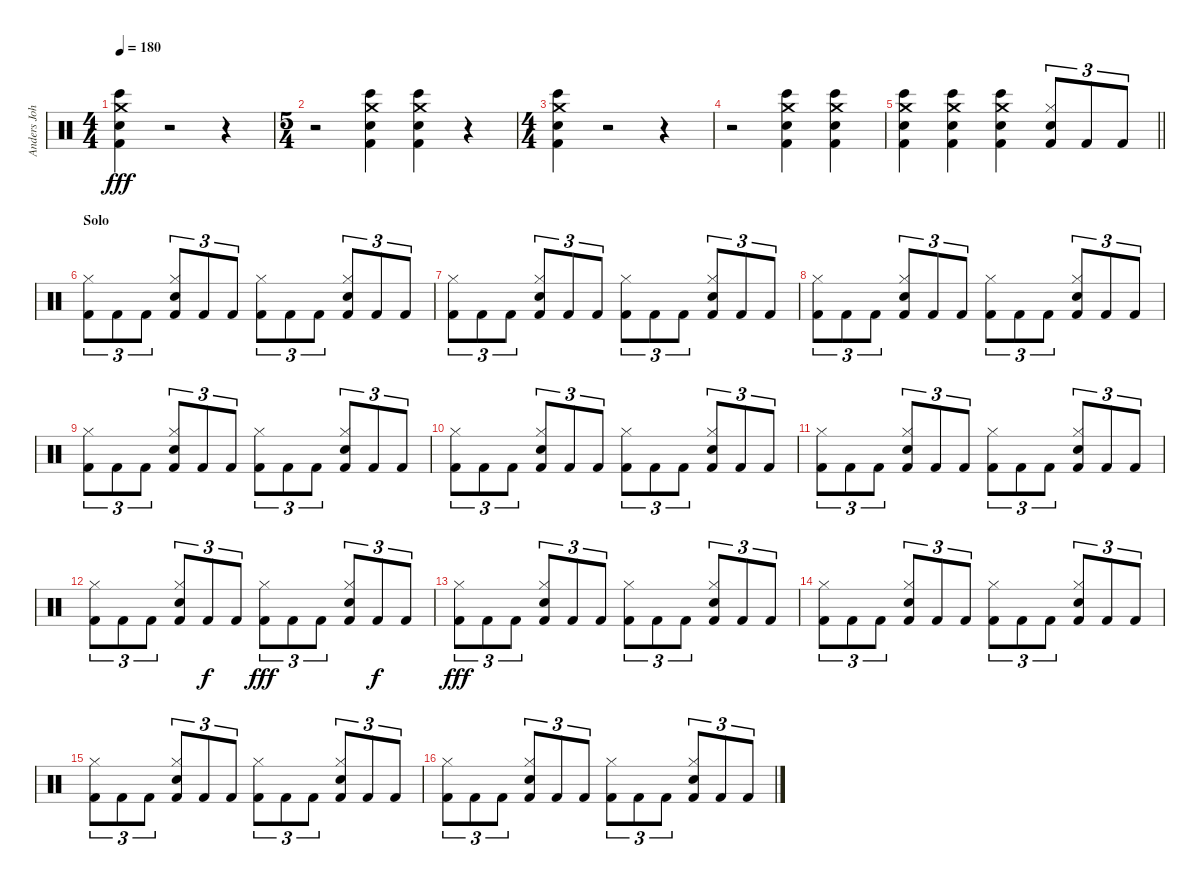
\track ("Anders Johansson" "Anders Joh") {instrument percussion}
\staff {score}
\articulation defaults
\ts (4 4)
\tempo 180
\clef neutral
\ks c
("Bongo High (hit)" "Crash medium (hit)" "Snare (hit) 2" "Kick (hit) 2").4{dy fff} r.2 r.4 |
\ts (5 4)
r.2 ("Bongo High (hit)" "Crash medium (hit)" "Snare (hit) 2" "Kick (hit) 2").4 ("Bongo High (hit)" "Crash medium (hit)" "Snare (hit) 2" "Kick (hit) 2").4 r.4 |
\ts (4 4)
("Bongo High (hit)" "Crash medium (hit)" "Snare (hit) 2" "Kick (hit) 2").4 r.2 r.4 |
r.2 ("Bongo High (hit)" "Crash medium (hit)" "Snare (hit) 2" "Kick (hit) 2").4 ("Bongo High (hit)" "Crash medium (hit)" "Snare (hit) 2" "Kick (hit) 2").4 |
\barLineRight lightlight
("Bongo High (hit)" "Crash medium (hit)" "Snare (hit) 2" "Kick (hit) 2").4 ("Bongo High (hit)" "Crash medium (hit)" "Snare (hit) 2" "Kick (hit) 2").4 ("Bongo High (hit)" "Crash medium (hit)" "Snare (hit) 2" "Kick (hit) 2").4 ("Hi-Hat (closed)" "Electric Snare (hit)" "Kick (hit) 2").8{tu (3 2)} "Kick (hit) 2".8{tu (3 2)} "Kick (hit) 2".8{tu (3 2)} |
\section ("" "Solo")
("Hi-Hat (closed)" "Kick (hit) 2").8{tu (3 2)} "Kick (hit) 2".8{tu (3 2)} "Kick (hit) 2".8{tu (3 2)} ("Hi-Hat (closed)" "Electric Snare (hit)" "Kick (hit) 2").8{tu (3 2)} "Kick (hit) 2".8{tu (3 2)} "Kick (hit) 2".8{tu (3 2)} ("Hi-Hat (closed)" "Kick (hit) 2").8{tu (3 2)} "Kick (hit) 2".8{tu (3 2)} "Kick (hit) 2".8{tu (3 2)} ("Hi-Hat (closed)" "Electric Snare (hit)" "Kick (hit) 2").8{tu (3 2)} "Kick (hit) 2".8{tu (3 2)} "Kick (hit) 2".8{tu (3 2)} |
("Hi-Hat (closed)" "Kick (hit) 2").8{tu (3 2)} "Kick (hit) 2".8{tu (3 2)} "Kick (hit) 2".8{tu (3 2)} ("Hi-Hat (closed)" "Electric Snare (hit)" "Kick (hit) 2").8{tu (3 2)} "Kick (hit) 2".8{tu (3 2)} "Kick (hit) 2".8{tu (3 2)} ("Hi-Hat (closed)" "Kick (hit) 2").8{tu (3 2)} "Kick (hit) 2".8{tu (3 2)} "Kick (hit) 2".8{tu (3 2)} ("Hi-Hat (closed)" "Electric Snare (hit)" "Kick (hit) 2").8{tu (3 2)} "Kick (hit) 2".8{tu (3 2)} "Kick (hit) 2".8{tu (3 2)} |
("Hi-Hat (closed)" "Kick (hit) 2").8{tu (3 2)} "Kick (hit) 2".8{tu (3 2)} "Kick (hit) 2".8{tu (3 2)} ("Hi-Hat (closed)" "Electric Snare (hit)" "Kick (hit) 2").8{tu (3 2)} "Kick (hit) 2".8{tu (3 2)} "Kick (hit) 2".8{tu (3 2)} ("Hi-Hat (closed)" "Kick (hit) 2").8{tu (3 2)} "Kick (hit) 2".8{tu (3 2)} "Kick (hit) 2".8{tu (3 2)} ("Hi-Hat (closed)" "Electric Snare (hit)" "Kick (hit) 2").8{tu (3 2)} "Kick (hit) 2".8{tu (3 2)} "Kick (hit) 2".8{tu (3 2)} |
("Hi-Hat (closed)" "Kick (hit) 2").8{tu (3 2)} "Kick (hit) 2".8{tu (3 2)} "Kick (hit) 2".8{tu (3 2)} ("Hi-Hat (closed)" "Electric Snare (hit)" "Kick (hit) 2").8{tu (3 2)} "Kick (hit) 2".8{tu (3 2)} "Kick (hit) 2".8{tu (3 2)} ("Hi-Hat (closed)" "Kick (hit) 2").8{tu (3 2)} "Kick (hit) 2".8{tu (3 2)} "Kick (hit) 2".8{tu (3 2)} ("Hi-Hat (closed)" "Electric Snare (hit)" "Kick (hit) 2").8{tu (3 2)} "Kick (hit) 2".8{tu (3 2)} "Kick (hit) 2".8{tu (3 2)} |
("Hi-Hat (closed)" "Kick (hit) 2").8{tu (3 2)} "Kick (hit) 2".8{tu (3 2)} "Kick (hit) 2".8{tu (3 2)} ("Hi-Hat (closed)" "Electric Snare (hit)" "Kick (hit) 2").8{tu (3 2)} "Kick (hit) 2".8{tu (3 2)} "Kick (hit) 2".8{tu (3 2)} ("Hi-Hat (closed)" "Kick (hit) 2").8{tu (3 2)} "Kick (hit) 2".8{tu (3 2)} "Kick (hit) 2".8{tu (3 2)} ("Hi-Hat (closed)" "Electric Snare (hit)" "Kick (hit) 2").8{tu (3 2)} "Kick (hit) 2".8{tu (3 2)} "Kick (hit) 2".8{tu (3 2)} |
("Hi-Hat (closed)" "Kick (hit) 2").8{tu (3 2)} "Kick (hit) 2".8{tu (3 2)} "Kick (hit) 2".8{tu (3 2)} ("Hi-Hat (closed)" "Electric Snare (hit)" "Kick (hit) 2").8{tu (3 2)} "Kick (hit) 2".8{tu (3 2)} "Kick (hit) 2".8{tu (3 2)} ("Hi-Hat (closed)" "Kick (hit) 2").8{tu (3 2)} "Kick (hit) 2".8{tu (3 2)} "Kick (hit) 2".8{tu (3 2)} ("Hi-Hat (closed)" "Electric Snare (hit)" "Kick (hit) 2").8{tu (3 2)} "Kick (hit) 2".8{tu (3 2)} "Kick (hit) 2".8{tu (3 2)} |
("Hi-Hat (closed)" "Kick (hit) 2").8{tu (3 2)} "Kick (hit) 2".8{tu (3 2)} "Kick (hit) 2".8{tu (3 2)} ("Hi-Hat (closed)" "Electric Snare (hit)" "Kick (hit) 2").8{tu (3 2)} "Kick (hit) 2".8{tu (3 2) dy f} "Kick (hit) 2".8{tu (3 2)} ("Hi-Hat (closed)" "Kick (hit) 2").8{tu (3 2) dy fff} "Kick (hit) 2".8{tu (3 2)} "Kick (hit) 2".8{tu (3 2)} ("Hi-Hat (closed)" "Electric Snare (hit)" "Kick (hit) 2").8{tu (3 2)} "Kick (hit) 2".8{tu (3 2) dy f} "Kick (hit) 2".8{tu (3 2)} |
("Hi-Hat (closed)" "Kick (hit) 2").8{tu (3 2) dy fff} "Kick (hit) 2".8{tu (3 2)} "Kick (hit) 2".8{tu (3 2)} ("Hi-Hat (closed)" "Electric Snare (hit)" "Kick (hit) 2").8{tu (3 2)} "Kick (hit) 2".8{tu (3 2)} "Kick (hit) 2".8{tu (3 2)} ("Hi-Hat (closed)" "Kick (hit) 2").8{tu (3 2)} "Kick (hit) 2".8{tu (3 2)} "Kick (hit) 2".8{tu (3 2)} ("Hi-Hat (closed)" "Electric Snare (hit)" "Kick (hit) 2").8{tu (3 2)} "Kick (hit) 2".8{tu (3 2)} "Kick (hit) 2".8{tu (3 2)} |
("Hi-Hat (closed)" "Kick (hit) 2").8{tu (3 2)} "Kick (hit) 2".8{tu (3 2)} "Kick (hit) 2".8{tu (3 2)} ("Hi-Hat (closed)" "Electric Snare (hit)" "Kick (hit) 2").8{tu (3 2)} "Kick (hit) 2".8{tu (3 2)} "Kick (hit) 2".8{tu (3 2)} ("Hi-Hat (closed)" "Kick (hit) 2").8{tu (3 2)} "Kick (hit) 2".8{tu (3 2)} "Kick (hit) 2".8{tu (3 2)} ("Hi-Hat (closed)" "Electric Snare (hit)" "Kick (hit) 2").8{tu (3 2)} "Kick (hit) 2".8{tu (3 2)} "Kick (hit) 2".8{tu (3 2)} |
("Hi-Hat (closed)" "Kick (hit) 2").8{tu (3 2)} "Kick (hit) 2".8{tu (3 2)} "Kick (hit) 2".8{tu (3 2)} ("Hi-Hat (closed)" "Electric Snare (hit)" "Kick (hit) 2").8{tu (3 2)} "Kick (hit) 2".8{tu (3 2)} "Kick (hit) 2".8{tu (3 2)} ("Hi-Hat (closed)" "Kick (hit) 2").8{tu (3 2)} "Kick (hit) 2".8{tu (3 2)} "Kick (hit) 2".8{tu (3 2)} ("Hi-Hat (closed)" "Electric Snare (hit)" "Kick (hit) 2").8{tu (3 2)} "Kick (hit) 2".8{tu (3 2)} "Kick (hit) 2".8{tu (3 2)} |
("Hi-Hat (closed)" "Kick (hit) 2").8{tu (3 2)} "Kick (hit) 2".8{tu (3 2)} "Kick (hit) 2".8{tu (3 2)} ("Hi-Hat (closed)" "Electric Snare (hit)" "Kick (hit) 2").8{tu (3 2)} "Kick (hit) 2".8{tu (3 2)} "Kick (hit) 2".8{tu (3 2)} ("Hi-Hat (closed)" "Kick (hit) 2").8{tu (3 2)} "Kick (hit) 2".8{tu (3 2)} "Kick (hit) 2".8{tu (3 2)} ("Hi-Hat (closed)" "Electric Snare (hit)" "Kick (hit) 2").8{tu (3 2)} "Kick (hit) 2".8{tu (3 2)} "Kick (hit) 2".8{tu (3 2)}
